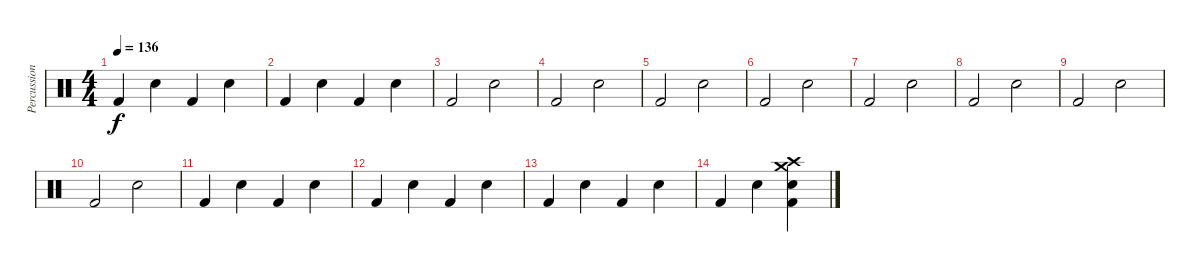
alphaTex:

\track ("Percussion" "Percussion") {instrument percussion}
\staff {score}
\articulation defaults
\ts (4 4)
\tempo 136
\clef neutral
\ks c "Kick (hit) 2".4{dy f} "Snare (hit) 2".4 "Kick (hit) 2".4 "Snare (hit) 2".4
|
"Kick (hit) 2".4 "Snare (hit) 2".4 "Kick (hit) 2".4 "Snare (hit) 2".4 |
"Kick (hit) 2".2 "Snare (hit) 2".2 |
"Kick (hit) 2".2 "Snare (hit) 2".2 |
"Kick (hit) 2".2 "Snare (hit) 2".2 |
"Kick (hit) 2".2 "Snare (hit) 2".2 |
"Kick (hit) 2".2 "Snare (hit) 2".2 |
"Kick (hit) 2".2 "Snare (hit) 2".2 |
"Kick (hit) 2".2 "Snare (hit) 2".2 |
"Kick (hit) 2".2 "Snare (hit) 2".2 |
"Kick (hit) 2".4 "Snare (hit) 2".4 "Kick (hit) 2".4 "Snare (hit) 2".4 |
"Kick (hit) 2".4 "Snare (hit) 2".4 "Kick (hit) 2".4 "Snare (hit) 2".4 |
"Kick (hit) 2".4 "Snare (hit) 2".4 "Kick (hit) 2".4 "Snare (hit) 2".4 |
"Kick (hit) 2".4 "Snare (hit) 2".4 ("Snare (hit) 2" "Crash high (hit)" "Crash medium (hit)" "Kick (hit) 2").4
